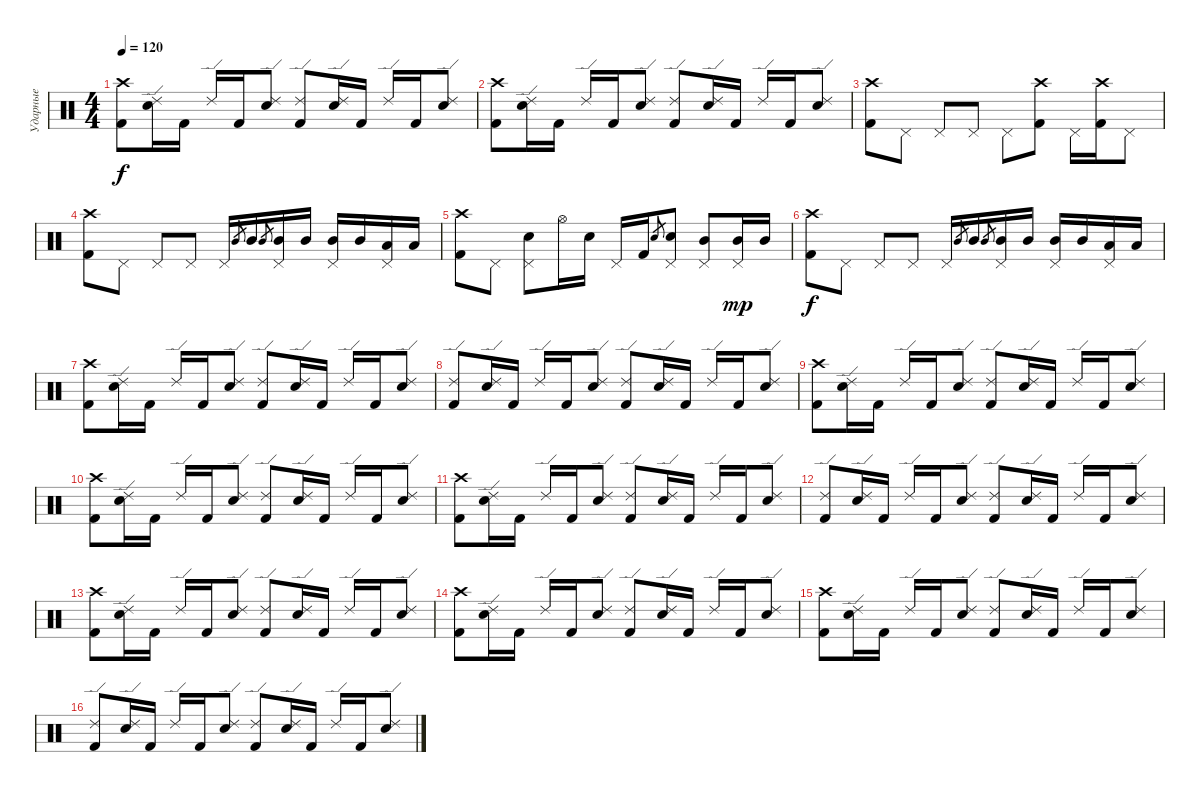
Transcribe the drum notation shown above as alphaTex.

\track ("Ударные" "Ударные") {instrument percussion}
\staff {score}
\articulation defaults
\ts (4 4)
\tempo 120
\clef neutral
\ks c
("Kick (hit) 2" "Crash high (hit)").8{dy f} ("Electric Snare (hit)" "Ride (edge) 2").16 "Kick (hit) 2".16 "Ride (edge) 2".16 "Kick (hit) 2".16 ("Electric Snare (hit)" "Ride (edge) 2").8 ("Kick (hit) 2" "Ride (edge) 2").8 ("Electric Snare (hit)" "Ride (edge) 2").16 "Kick (hit) 2".16 "Ride (edge) 2".16 "Kick (hit) 2".16 ("Electric Snare (hit)" "Ride (edge) 2").8 |
("Kick (hit) 2" "Crash high (hit)").8 ("Electric Snare (hit)" "Ride (edge) 2").16 "Kick (hit) 2".16 "Ride (edge) 2".16 "Kick (hit) 2".16 ("Electric Snare (hit)" "Ride (edge) 2").8 ("Kick (hit) 2" "Ride (edge) 2").8 ("Electric Snare (hit)" "Ride (edge) 2").16 "Kick (hit) 2".16 "Ride (edge) 2".16 "Kick (hit) 2".16 ("Electric Snare (hit)" "Ride (edge) 2").8 |
("Kick (hit) 2" "Crash high (hit)").8 "Pedal Hi-Hat (hit)".8 "Pedal Hi-Hat (hit)".8 "Pedal Hi-Hat (hit)".8 "Pedal Hi-Hat (hit)".8 ("Kick (hit) 2" "Crash high (hit)").8 "Pedal Hi-Hat (hit)".16 ("Kick (hit) 2" "Crash high (hit)").16 "Pedal Hi-Hat (hit)".8 |
("Kick (hit) 2" "Crash high (hit)").8 "Pedal Hi-Hat (hit)".8 "Pedal Hi-Hat (hit)".8 "Pedal Hi-Hat (hit)".8 "Pedal Hi-Hat (hit)".16 "Mid Tom (hit)".8{gr} "Mid Tom (hit)".16 "Mid Tom (hit)".8{gr} ("Pedal Hi-Hat (hit)" "Mid Tom (hit)").16 "Mid Tom (hit)".16 ("Pedal Hi-Hat (hit)" "Mid Tom (hit)").16 "Mid Tom (hit)".16 ("Pedal Hi-Hat (hit)" "Low Tom (hit)").16 "Low Tom (hit)".16 |
("Kick (hit) 2" "Crash high (hit)").8 "Pedal Hi-Hat (hit)".8 ("Pedal Hi-Hat (hit)" "Electric Snare (hit)").8 "Hi-Hat (open)".16 "Electric Snare (hit)".16 "Pedal Hi-Hat (hit)".16 "Kick (hit) 2".16 "Electric Snare (hit)".8{gr} ("Pedal Hi-Hat (hit)" "Electric Snare (hit)").8 ("Pedal Hi-Hat (hit)" "Mid Tom (hit)").8 ("Pedal Hi-Hat (hit)" "Mid Tom (hit)").16{dy mp} "Mid Tom (hit)".16 |
("Kick (hit) 2" "Crash high (hit)").8{dy f} "Pedal Hi-Hat (hit)".8 "Pedal Hi-Hat (hit)".8 "Pedal Hi-Hat (hit)".8 "Pedal Hi-Hat (hit)".16 "Mid Tom (hit)".8{gr} "Mid Tom (hit)".16 "Mid Tom (hit)".8{gr} ("Pedal Hi-Hat (hit)" "Mid Tom (hit)").16 "Mid Tom (hit)".16 ("Pedal Hi-Hat (hit)" "Mid Tom (hit)").16 "Mid Tom (hit)".16 ("Pedal Hi-Hat (hit)" "Low Tom (hit)").16 "Low Tom (hit)".16 |
("Kick (hit) 2" "Crash high (hit)").8 ("Electric Snare (hit)" "Ride (edge) 2").16 "Kick (hit) 2".16 "Ride (edge) 2".16 "Kick (hit) 2".16 ("Electric Snare (hit)" "Ride (edge) 2").8 ("Kick (hit) 2" "Ride (edge) 2").8 ("Electric Snare (hit)" "Ride (edge) 2").16 "Kick (hit) 2".16 "Ride (edge) 2".16 "Kick (hit) 2".16 ("Electric Snare (hit)" "Ride (edge) 2").8 |
("Kick (hit) 2" "Ride (edge) 2").8 ("Electric Snare (hit)" "Ride (edge) 2").16 "Kick (hit) 2".16 "Ride (edge) 2".16 "Kick (hit) 2".16 ("Electric Snare (hit)" "Ride (edge) 2").8 ("Kick (hit) 2" "Ride (edge) 2").8 ("Electric Snare (hit)" "Ride (edge) 2").16 "Kick (hit) 2".16 "Ride (edge) 2".16 "Kick (hit) 2".16 ("Electric Snare (hit)" "Ride (edge) 2").8 |
("Kick (hit) 2" "Crash high (hit)").8 ("Electric Snare (hit)" "Ride (edge) 2").16 "Kick (hit) 2".16 "Ride (edge) 2".16 "Kick (hit) 2".16 ("Electric Snare (hit)" "Ride (edge) 2").8 ("Kick (hit) 2" "Ride (edge) 2").8 ("Electric Snare (hit)" "Ride (edge) 2").16 "Kick (hit) 2".16 "Ride (edge) 2".16 "Kick (hit) 2".16 ("Electric Snare (hit)" "Ride (edge) 2").8 |
("Kick (hit) 2" "Crash high (hit)").8 ("Electric Snare (hit)" "Ride (edge) 2").16 "Kick (hit) 2".16 "Ride (edge) 2".16 "Kick (hit) 2".16 ("Electric Snare (hit)" "Ride (edge) 2").8 ("Kick (hit) 2" "Ride (edge) 2").8 ("Electric Snare (hit)" "Ride (edge) 2").16 "Kick (hit) 2".16 "Ride (edge) 2".16 "Kick (hit) 2".16 ("Electric Snare (hit)" "Ride (edge) 2").8 |
("Kick (hit) 2" "Crash high (hit)").8 ("Electric Snare (hit)" "Ride (edge) 2").16 "Kick (hit) 2".16 "Ride (edge) 2".16 "Kick (hit) 2".16 ("Electric Snare (hit)" "Ride (edge) 2").8 ("Kick (hit) 2" "Ride (edge) 2").8 ("Electric Snare (hit)" "Ride (edge) 2").16 "Kick (hit) 2".16 "Ride (edge) 2".16 "Kick (hit) 2".16 ("Electric Snare (hit)" "Ride (edge) 2").8 |
("Kick (hit) 2" "Ride (edge) 2").8 ("Electric Snare (hit)" "Ride (edge) 2").16 "Kick (hit) 2".16 "Ride (edge) 2".16 "Kick (hit) 2".16 ("Electric Snare (hit)" "Ride (edge) 2").8 ("Kick (hit) 2" "Ride (edge) 2").8 ("Electric Snare (hit)" "Ride (edge) 2").16 "Kick (hit) 2".16 "Ride (edge) 2".16 "Kick (hit) 2".16 ("Electric Snare (hit)" "Ride (edge) 2").8 |
("Kick (hit) 2" "Crash high (hit)").8 ("Electric Snare (hit)" "Ride (edge) 2").16 "Kick (hit) 2".16 "Ride (edge) 2".16 "Kick (hit) 2".16 ("Electric Snare (hit)" "Ride (edge) 2").8 ("Kick (hit) 2" "Ride (edge) 2").8 ("Electric Snare (hit)" "Ride (edge) 2").16 "Kick (hit) 2".16 "Ride (edge) 2".16 "Kick (hit) 2".16 ("Electric Snare (hit)" "Ride (edge) 2").8 |
("Kick (hit) 2" "Crash high (hit)").8 ("Electric Snare (hit)" "Ride (edge) 2").16 "Kick (hit) 2".16 "Ride (edge) 2".16 "Kick (hit) 2".16 ("Electric Snare (hit)" "Ride (edge) 2").8 ("Kick (hit) 2" "Ride (edge) 2").8 ("Electric Snare (hit)" "Ride (edge) 2").16 "Kick (hit) 2".16 "Ride (edge) 2".16 "Kick (hit) 2".16 ("Electric Snare (hit)" "Ride (edge) 2").8 |
("Kick (hit) 2" "Crash high (hit)").8 ("Electric Snare (hit)" "Ride (edge) 2").16 "Kick (hit) 2".16 "Ride (edge) 2".16 "Kick (hit) 2".16 ("Electric Snare (hit)" "Ride (edge) 2").8 ("Kick (hit) 2" "Ride (edge) 2").8 ("Electric Snare (hit)" "Ride (edge) 2").16 "Kick (hit) 2".16 "Ride (edge) 2".16 "Kick (hit) 2".16 ("Electric Snare (hit)" "Ride (edge) 2").8 |
("Kick (hit) 2" "Ride (edge) 2").8 ("Electric Snare (hit)" "Ride (edge) 2").16 "Kick (hit) 2".16 "Ride (edge) 2".16 "Kick (hit) 2".16 ("Electric Snare (hit)" "Ride (edge) 2").8 ("Kick (hit) 2" "Ride (edge) 2").8 ("Electric Snare (hit)" "Ride (edge) 2").16 "Kick (hit) 2".16 "Ride (edge) 2".16 "Kick (hit) 2".16 ("Electric Snare (hit)" "Ride (edge) 2").8
